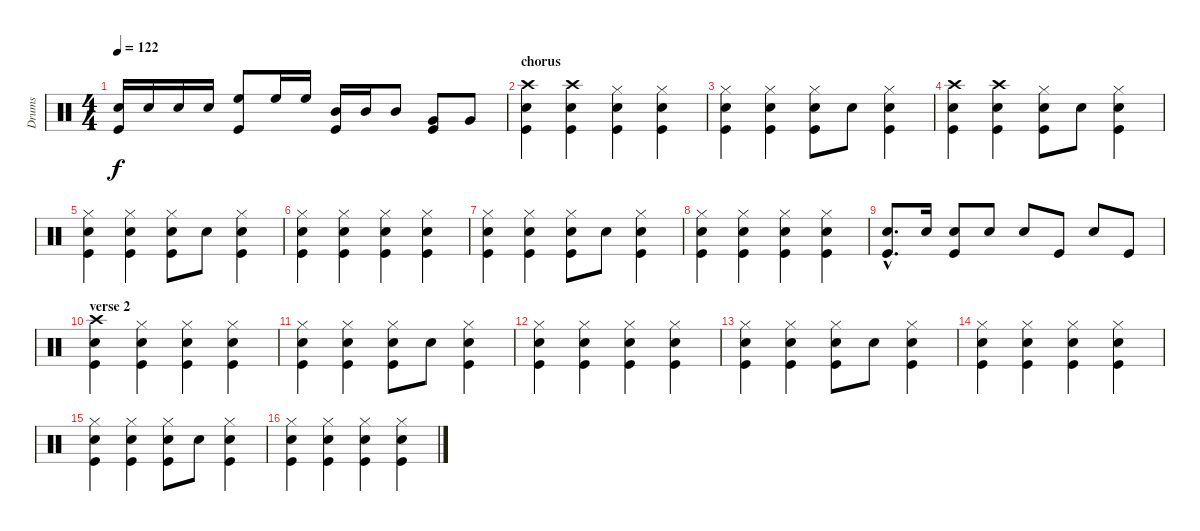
\track ("Drums" "Drums") {instrument percussion}
\staff {score}
\articulation defaults
\ts (4 4)
\tempo 122
\clef neutral
\ks c
("Electric Snare (hit)" "Kick (hit)").16{dy f} "Electric Snare (hit)".16 "Electric Snare (hit)".16 "Electric Snare (hit)".16 ("High Floor Tom (hit)" "Kick (hit)").8 "High Floor Tom (hit)".16 "High Floor Tom (hit)".16 ("Mid Tom (hit)" "Kick (hit)").16 "Mid Tom (hit)".16 "Mid Tom (hit)".8 ("Very Low Tom (hit)" "Kick (hit)").8 "Very Low Tom (hit)".8 |
\section ("" "chorus")
("Crash high (hit)" "Electric Snare (hit)" "Kick (hit)").4 ("Crash high (hit)" "Electric Snare (hit)" "Kick (hit)").4 ("Hi-Hat (closed)" "Electric Snare (hit)" "Kick (hit)").4 ("Hi-Hat (closed)" "Electric Snare (hit)" "Kick (hit)").4 |
("Hi-Hat (closed)" "Electric Snare (hit)" "Kick (hit)").4 ("Hi-Hat (closed)" "Electric Snare (hit)" "Kick (hit)").4 ("Hi-Hat (closed)" "Electric Snare (hit)" "Kick (hit)").8 "Electric Snare (hit)".8 ("Hi-Hat (closed)" "Electric Snare (hit)" "Kick (hit)").4 |
("Crash high (hit)" "Electric Snare (hit)" "Kick (hit)").4 ("Crash high (hit)" "Electric Snare (hit)" "Kick (hit)").4 ("Hi-Hat (closed)" "Electric Snare (hit)" "Kick (hit)").8 "Electric Snare (hit)".8 ("Hi-Hat (closed)" "Electric Snare (hit)" "Kick (hit)").4 |
("Hi-Hat (closed)" "Electric Snare (hit)" "Kick (hit)").4 ("Hi-Hat (closed)" "Electric Snare (hit)" "Kick (hit)").4 ("Hi-Hat (closed)" "Electric Snare (hit)" "Kick (hit)").8 "Electric Snare (hit)".8 ("Hi-Hat (closed)" "Electric Snare (hit)" "Kick (hit)").4 |
("Hi-Hat (closed)" "Electric Snare (hit)" "Kick (hit)").4 ("Hi-Hat (closed)" "Electric Snare (hit)" "Kick (hit)").4 ("Hi-Hat (closed)" "Electric Snare (hit)" "Kick (hit)").4 ("Hi-Hat (closed)" "Electric Snare (hit)" "Kick (hit)").4 |
("Hi-Hat (closed)" "Electric Snare (hit)" "Kick (hit)").4 ("Hi-Hat (closed)" "Electric Snare (hit)" "Kick (hit)").4 ("Hi-Hat (closed)" "Electric Snare (hit)" "Kick (hit)").8 "Electric Snare (hit)".8 ("Hi-Hat (closed)" "Electric Snare (hit)" "Kick (hit)").4 |
("Hi-Hat (closed)" "Electric Snare (hit)" "Kick (hit)").4 ("Hi-Hat (closed)" "Electric Snare (hit)" "Kick (hit)").4 ("Hi-Hat (closed)" "Electric Snare (hit)" "Kick (hit)").4 ("Hi-Hat (closed)" "Electric Snare (hit)" "Kick (hit)").4 |
("Electric Snare (hit)"{hac} "Kick (hit)"{hac}).8{d} "Electric Snare (hit)".16 ("Electric Snare (hit)" "Kick (hit)").8 "Electric Snare (hit)".8 "Electric Snare (hit)".8 "Kick (hit)".8 "Electric Snare (hit)".8 "Kick (hit)".8 |
\section ("" "verse 2")
("Crash high (hit)" "Electric Snare (hit)" "Kick (hit)").4 ("Hi-Hat (closed)" "Electric Snare (hit)" "Kick (hit)").4 ("Hi-Hat (closed)" "Electric Snare (hit)" "Kick (hit)").4 ("Hi-Hat (closed)" "Electric Snare (hit)" "Kick (hit)").4 |
("Hi-Hat (closed)" "Electric Snare (hit)" "Kick (hit)").4 ("Hi-Hat (closed)" "Electric Snare (hit)" "Kick (hit)").4 ("Hi-Hat (closed)" "Electric Snare (hit)" "Kick (hit)").8 "Electric Snare (hit)".8 ("Hi-Hat (closed)" "Electric Snare (hit)" "Kick (hit)").4 |
("Hi-Hat (closed)" "Electric Snare (hit)" "Kick (hit)").4 ("Hi-Hat (closed)" "Electric Snare (hit)" "Kick (hit)").4 ("Hi-Hat (closed)" "Electric Snare (hit)" "Kick (hit)").4 ("Hi-Hat (closed)" "Electric Snare (hit)" "Kick (hit)").4 |
("Hi-Hat (closed)" "Electric Snare (hit)" "Kick (hit)").4 ("Hi-Hat (closed)" "Electric Snare (hit)" "Kick (hit)").4 ("Hi-Hat (closed)" "Electric Snare (hit)" "Kick (hit)").8 "Electric Snare (hit)".8 ("Hi-Hat (closed)" "Electric Snare (hit)" "Kick (hit)").4 |
("Hi-Hat (closed)" "Electric Snare (hit)" "Kick (hit)").4 ("Hi-Hat (closed)" "Electric Snare (hit)" "Kick (hit)").4 ("Hi-Hat (closed)" "Electric Snare (hit)" "Kick (hit)").4 ("Hi-Hat (closed)" "Electric Snare (hit)" "Kick (hit)").4 |
("Hi-Hat (closed)" "Electric Snare (hit)" "Kick (hit)").4 ("Hi-Hat (closed)" "Electric Snare (hit)" "Kick (hit)").4 ("Hi-Hat (closed)" "Electric Snare (hit)" "Kick (hit)").8 "Electric Snare (hit)".8 ("Hi-Hat (closed)" "Electric Snare (hit)" "Kick (hit)").4 |
("Hi-Hat (closed)" "Electric Snare (hit)" "Kick (hit)").4 ("Hi-Hat (closed)" "Electric Snare (hit)" "Kick (hit)").4 ("Hi-Hat (closed)" "Electric Snare (hit)" "Kick (hit)").4 ("Hi-Hat (closed)" "Electric Snare (hit)" "Kick (hit)").4
